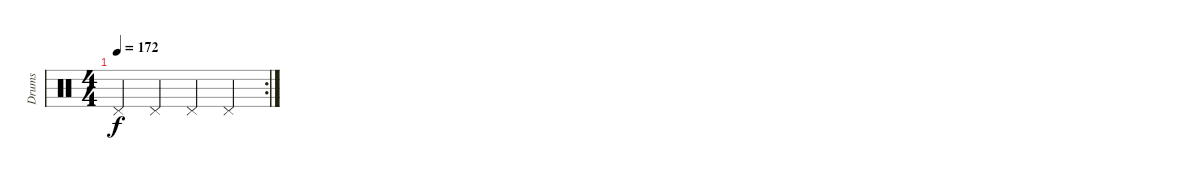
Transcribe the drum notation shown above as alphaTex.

\track ("Drums" "Drums") {instrument percussion}
\staff {score}
\articulation defaults
\rc 2
\ts (4 4)
\tempo 172
\clef neutral
\ks c "Pedal Hi-Hat (hit)".4{dy f} "Pedal Hi-Hat (hit)".4 "Pedal Hi-Hat (hit)".4 "Pedal Hi-Hat (hit)".4
